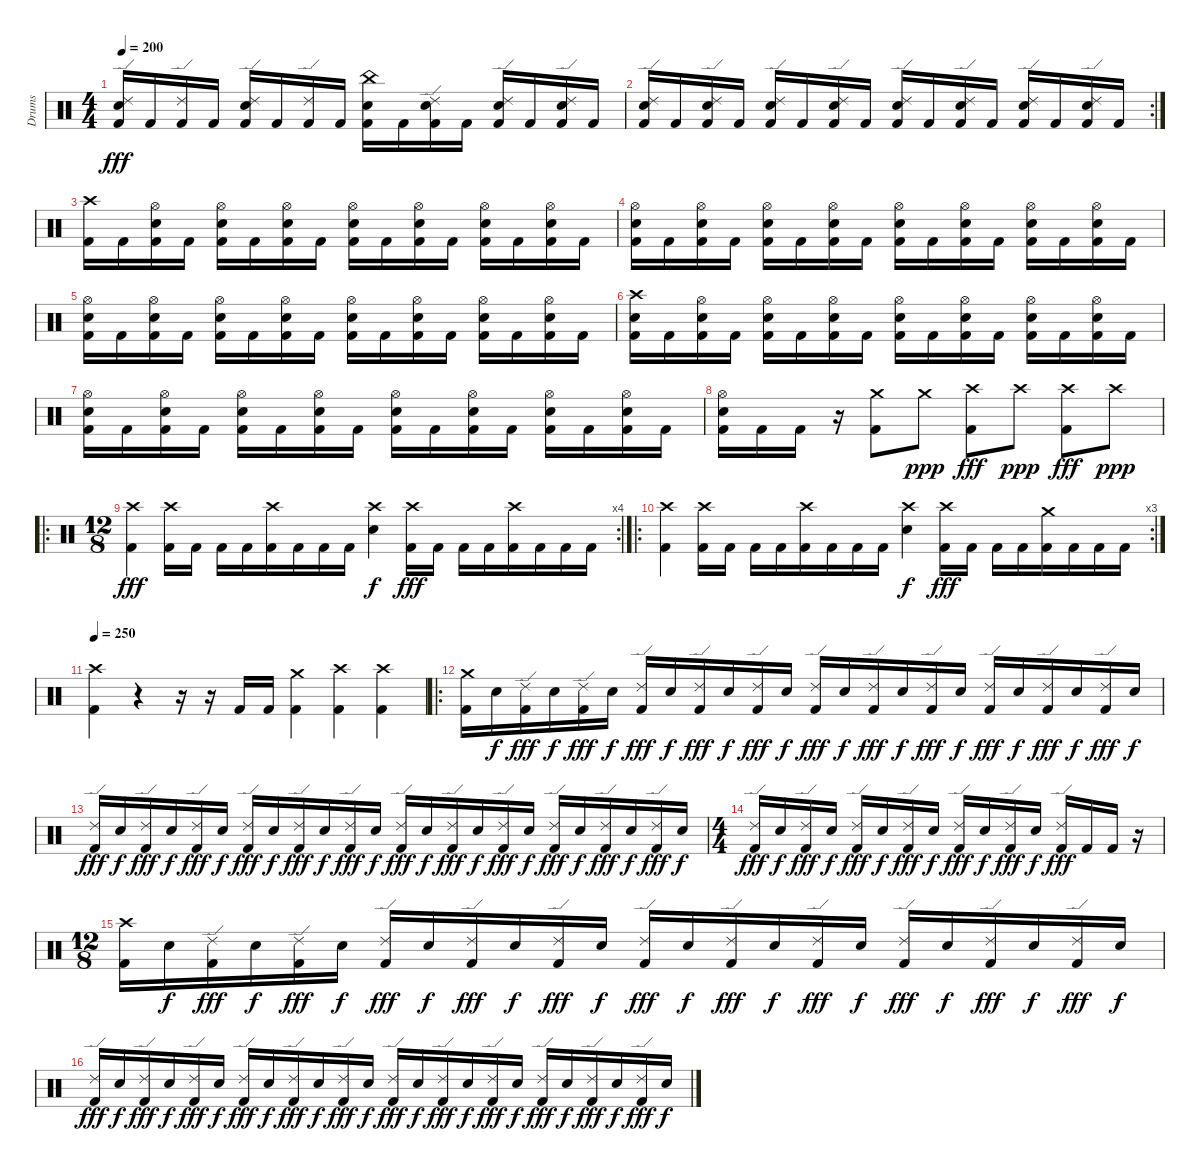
\track ("Drums" "Drums") {instrument percussion}
\staff {score}
\articulation defaults
\ts (4 4)
\tempo 200
\clef neutral
\ks c
("Ride (edge) 2" "Electric Snare (hit)" "Kick (hit) 2").16{dy fff} "Kick (hit) 2".16 ("Ride (edge) 2" "Kick (hit) 2").16 "Kick (hit) 2".16 ("Ride (edge) 2" "Electric Snare (hit)" "Kick (hit) 2").16 "Kick (hit) 2".16 ("Ride (edge) 2" "Kick (hit) 2").16 "Kick (hit) 2".16 ("China (hit)" "Electric Snare (hit)" "Kick (hit) 2").16 "Kick (hit) 2".16 ("Ride (edge) 2" "Electric Snare (hit)" "Kick (hit) 2").16 "Kick (hit) 2".16 ("Ride (edge) 2" "Electric Snare (hit)" "Kick (hit) 2").16 "Kick (hit) 2".16 ("Ride (edge) 2" "Electric Snare (hit)" "Kick (hit) 2").16 "Kick (hit) 2".16 |
\rc 2
("Ride (edge) 2" "Electric Snare (hit)" "Kick (hit) 2").16 "Kick (hit) 2".16 ("Ride (edge) 2" "Electric Snare (hit)" "Kick (hit) 2").16 "Kick (hit) 2".16 ("Ride (edge) 2" "Electric Snare (hit)" "Kick (hit) 2").16 "Kick (hit) 2".16 ("Ride (edge) 2" "Electric Snare (hit)" "Kick (hit) 2").16 "Kick (hit) 2".16 ("Ride (edge) 2" "Electric Snare (hit)" "Kick (hit) 2").16 "Kick (hit) 2".16 ("Ride (edge) 2" "Electric Snare (hit)" "Kick (hit) 2").16 "Kick (hit) 2".16 ("Ride (edge) 2" "Electric Snare (hit)" "Kick (hit) 2").16 "Kick (hit) 2".16 ("Ride (edge) 2" "Electric Snare (hit)" "Kick (hit) 2").16 "Kick (hit) 2".16 |
("Crash high (hit)" "Kick (hit) 2").16 "Kick (hit) 2".16 ("Hi-Hat (open)" "Electric Snare (hit)" "Kick (hit) 2").16 "Kick (hit) 2".16 ("Hi-Hat (open)" "Electric Snare (hit)" "Kick (hit) 2").16 "Kick (hit) 2".16 ("Hi-Hat (open)" "Electric Snare (hit)" "Kick (hit) 2").16 "Kick (hit) 2".16 ("Hi-Hat (open)" "Electric Snare (hit)" "Kick (hit) 2").16 "Kick (hit) 2".16 ("Hi-Hat (open)" "Electric Snare (hit)" "Kick (hit) 2").16 "Kick (hit) 2".16 ("Hi-Hat (open)" "Electric Snare (hit)" "Kick (hit) 2").16 "Kick (hit) 2".16 ("Hi-Hat (open)" "Electric Snare (hit)" "Kick (hit) 2").16 "Kick (hit) 2".16 |
("Hi-Hat (open)" "Electric Snare (hit)" "Kick (hit) 2").16 "Kick (hit) 2".16 ("Hi-Hat (open)" "Electric Snare (hit)" "Kick (hit) 2").16 "Kick (hit) 2".16 ("Hi-Hat (open)" "Electric Snare (hit)" "Kick (hit) 2").16 "Kick (hit) 2".16 ("Hi-Hat (open)" "Electric Snare (hit)" "Kick (hit) 2").16 "Kick (hit) 2".16 ("Hi-Hat (open)" "Electric Snare (hit)" "Kick (hit) 2").16 "Kick (hit) 2".16 ("Hi-Hat (open)" "Electric Snare (hit)" "Kick (hit) 2").16 "Kick (hit) 2".16 ("Hi-Hat (open)" "Electric Snare (hit)" "Kick (hit) 2").16 "Kick (hit) 2".16 ("Hi-Hat (open)" "Electric Snare (hit)" "Kick (hit) 2").16 "Kick (hit) 2".16 |
("Hi-Hat (open)" "Electric Snare (hit)" "Kick (hit) 2").16 "Kick (hit) 2".16 ("Hi-Hat (open)" "Electric Snare (hit)" "Kick (hit) 2").16 "Kick (hit) 2".16 ("Hi-Hat (open)" "Electric Snare (hit)" "Kick (hit) 2").16 "Kick (hit) 2".16 ("Hi-Hat (open)" "Electric Snare (hit)" "Kick (hit) 2").16 "Kick (hit) 2".16 ("Hi-Hat (open)" "Electric Snare (hit)" "Kick (hit) 2").16 "Kick (hit) 2".16 ("Hi-Hat (open)" "Electric Snare (hit)" "Kick (hit) 2").16 "Kick (hit) 2".16 ("Hi-Hat (open)" "Electric Snare (hit)" "Kick (hit) 2").16 "Kick (hit) 2".16 ("Hi-Hat (open)" "Electric Snare (hit)" "Kick (hit) 2").16 "Kick (hit) 2".16 |
("Crash high (hit)" "Electric Snare (hit)" "Kick (hit) 2").16 "Kick (hit) 2".16 ("Hi-Hat (open)" "Electric Snare (hit)" "Kick (hit) 2").16 "Kick (hit) 2".16 ("Hi-Hat (open)" "Electric Snare (hit)" "Kick (hit) 2").16 "Kick (hit) 2".16 ("Hi-Hat (open)" "Electric Snare (hit)" "Kick (hit) 2").16 "Kick (hit) 2".16 ("Hi-Hat (open)" "Electric Snare (hit)" "Kick (hit) 2").16 "Kick (hit) 2".16 ("Hi-Hat (open)" "Electric Snare (hit)" "Kick (hit) 2").16 "Kick (hit) 2".16 ("Hi-Hat (open)" "Electric Snare (hit)" "Kick (hit) 2").16 "Kick (hit) 2".16 ("Hi-Hat (open)" "Electric Snare (hit)" "Kick (hit) 2").16 "Kick (hit) 2".16 |
("Hi-Hat (open)" "Electric Snare (hit)" "Kick (hit) 2").16 "Kick (hit) 2".16 ("Hi-Hat (open)" "Electric Snare (hit)" "Kick (hit) 2").16 "Kick (hit) 2".16 ("Hi-Hat (open)" "Electric Snare (hit)" "Kick (hit) 2").16 "Kick (hit) 2".16 ("Hi-Hat (open)" "Electric Snare (hit)" "Kick (hit) 2").16 "Kick (hit) 2".16 ("Hi-Hat (open)" "Electric Snare (hit)" "Kick (hit) 2").16 "Kick (hit) 2".16 ("Hi-Hat (open)" "Electric Snare (hit)" "Kick (hit) 2").16 "Kick (hit) 2".16 ("Hi-Hat (open)" "Electric Snare (hit)" "Kick (hit) 2").16 "Kick (hit) 2".16 ("Hi-Hat (open)" "Electric Snare (hit)" "Kick (hit) 2").16 "Kick (hit) 2".16 |
("Hi-Hat (open)" "Electric Snare (hit)" "Kick (hit) 2").16 "Kick (hit) 2".16 "Kick (hit) 2".16 r.16 ("Crash medium (hit)" "Kick (hit) 2").8 "Crash medium (hit)".8{dy ppp} ("Crash high (hit)" "Kick (hit) 2").8{dy fff} "Crash high (hit)".8{dy ppp} ("Crash high (hit)" "Kick (hit) 2").8{dy fff} "Crash high (hit)".8{dy ppp} |
\ro
\rc 4
\ts (12 8)
("Crash high (hit)" "Kick (hit) 2").4{dy fff} ("Crash high (hit)" "Kick (hit) 2").16 "Kick (hit) 2".16 "Kick (hit) 2".16 "Kick (hit) 2".16 ("Crash high (hit)" "Kick (hit) 2").16 "Kick (hit) 2".16 "Kick (hit) 2".16 "Kick (hit) 2".16 ("Crash high (hit)" "Electric Snare (hit)").4{dy f} ("Crash high (hit)" "Kick (hit) 2").16{dy fff} "Kick (hit) 2".16 "Kick (hit) 2".16 "Kick (hit) 2".16 ("Crash high (hit)" "Kick (hit) 2").16 "Kick (hit) 2".16 "Kick (hit) 2".16 "Kick (hit) 2".16 |
\ro
\rc 3
("Crash high (hit)" "Kick (hit) 2").4 ("Crash high (hit)" "Kick (hit) 2").16 "Kick (hit) 2".16 "Kick (hit) 2".16 "Kick (hit) 2".16 ("Crash high (hit)" "Kick (hit) 2").16 "Kick (hit) 2".16 "Kick (hit) 2".16 "Kick (hit) 2".16 ("Crash high (hit)" "Electric Snare (hit)").4{dy f} ("Crash high (hit)" "Kick (hit) 2").16{dy fff} "Kick (hit) 2".16 "Kick (hit) 2".16 "Kick (hit) 2".16 ("Crash medium (hit)" "Kick (hit) 2").16 "Kick (hit) 2".16 "Kick (hit) 2".16 "Kick (hit) 2".16 |
\tempo 250
("Crash high (hit)" "Kick (hit) 2").4 r.4 r.16 r.16 "Kick (hit) 2".16 "Kick (hit) 2".16 ("Crash medium (hit)" "Kick (hit) 2").4 ("Crash high (hit)" "Kick (hit) 2").4 ("Crash high (hit)" "Kick (hit) 2").4 |
\ro
("Crash medium (hit)" "Kick (hit) 2").16 "Electric Snare (hit)".16{dy f} ("Ride (edge) 2" "Kick (hit) 2").16{dy fff} "Electric Snare (hit)".16{dy f} ("Ride (edge) 2" "Kick (hit) 2").16{dy fff} "Electric Snare (hit)".16{dy f} ("Ride (edge) 2" "Kick (hit) 2").16{dy fff} "Electric Snare (hit)".16{dy f} ("Ride (edge) 2" "Kick (hit) 2").16{dy fff} "Electric Snare (hit)".16{dy f} ("Ride (edge) 2" "Kick (hit) 2").16{dy fff} "Electric Snare (hit)".16{dy f} ("Ride (edge) 2" "Kick (hit) 2").16{dy fff} "Electric Snare (hit)".16{dy f} ("Ride (edge) 2" "Kick (hit) 2").16{dy fff} "Electric Snare (hit)".16{dy f} ("Ride (edge) 2" "Kick (hit) 2").16{dy fff} "Electric Snare (hit)".16{dy f} ("Ride (edge) 2" "Kick (hit) 2").16{dy fff} "Electric Snare (hit)".16{dy f} ("Ride (edge) 2" "Kick (hit) 2").16{dy fff} "Electric Snare (hit)".16{dy f} ("Ride (edge) 2" "Kick (hit) 2").16{dy fff} "Electric Snare (hit)".16{dy f} |
("Ride (edge) 2" "Kick (hit) 2").16{dy fff} "Electric Snare (hit)".16{dy f} ("Ride (edge) 2" "Kick (hit) 2").16{dy fff} "Electric Snare (hit)".16{dy f} ("Ride (edge) 2" "Kick (hit) 2").16{dy fff} "Electric Snare (hit)".16{dy f} ("Ride (edge) 2" "Kick (hit) 2").16{dy fff} "Electric Snare (hit)".16{dy f} ("Ride (edge) 2" "Kick (hit) 2").16{dy fff} "Electric Snare (hit)".16{dy f} ("Ride (edge) 2" "Kick (hit) 2").16{dy fff} "Electric Snare (hit)".16{dy f} ("Ride (edge) 2" "Kick (hit) 2").16{dy fff} "Electric Snare (hit)".16{dy f} ("Ride (edge) 2" "Kick (hit) 2").16{dy fff} "Electric Snare (hit)".16{dy f} ("Ride (edge) 2" "Kick (hit) 2").16{dy fff} "Electric Snare (hit)".16{dy f} ("Ride (edge) 2" "Kick (hit) 2").16{dy fff} "Electric Snare (hit)".16{dy f} ("Ride (edge) 2" "Kick (hit) 2").16{dy fff} "Electric Snare (hit)".16{dy f} ("Ride (edge) 2" "Kick (hit) 2").16{dy fff} "Electric Snare (hit)".16{dy f} |
\ts (4 4)
("Ride (edge) 2" "Kick (hit) 2").16{dy fff} "Electric Snare (hit)".16{dy f} ("Ride (edge) 2" "Kick (hit) 2").16{dy fff} "Electric Snare (hit)".16{dy f} ("Ride (edge) 2" "Kick (hit) 2").16{dy fff} "Electric Snare (hit)".16{dy f} ("Ride (edge) 2" "Kick (hit) 2").16{dy fff} "Electric Snare (hit)".16{dy f} ("Ride (edge) 2" "Kick (hit) 2").16{dy fff} "Electric Snare (hit)".16{dy f} ("Ride (edge) 2" "Kick (hit) 2").16{dy fff} "Electric Snare (hit)".16{dy f} ("Ride (edge) 2" "Kick (hit) 2").16{dy fff} "Kick (hit) 2".16 "Kick (hit) 2".16 r.16 |
\ts (12 8)
("Crash high (hit)" "Kick (hit) 2").16 "Electric Snare (hit)".16{dy f} ("Ride (edge) 2" "Kick (hit) 2").16{dy fff} "Electric Snare (hit)".16{dy f} ("Ride (edge) 2" "Kick (hit) 2").16{dy fff} "Electric Snare (hit)".16{dy f} ("Ride (edge) 2" "Kick (hit) 2").16{dy fff} "Electric Snare (hit)".16{dy f} ("Ride (edge) 2" "Kick (hit) 2").16{dy fff} "Electric Snare (hit)".16{dy f} ("Ride (edge) 2" "Kick (hit) 2").16{dy fff} "Electric Snare (hit)".16{dy f} ("Ride (edge) 2" "Kick (hit) 2").16{dy fff} "Electric Snare (hit)".16{dy f} ("Ride (edge) 2" "Kick (hit) 2").16{dy fff} "Electric Snare (hit)".16{dy f} ("Ride (edge) 2" "Kick (hit) 2").16{dy fff} "Electric Snare (hit)".16{dy f} ("Ride (edge) 2" "Kick (hit) 2").16{dy fff} "Electric Snare (hit)".16{dy f} ("Ride (edge) 2" "Kick (hit) 2").16{dy fff} "Electric Snare (hit)".16{dy f} ("Ride (edge) 2" "Kick (hit) 2").16{dy fff} "Electric Snare (hit)".16{dy f} |
("Ride (edge) 2" "Kick (hit) 2").16{dy fff} "Electric Snare (hit)".16{dy f} ("Ride (edge) 2" "Kick (hit) 2").16{dy fff} "Electric Snare (hit)".16{dy f} ("Ride (edge) 2" "Kick (hit) 2").16{dy fff} "Electric Snare (hit)".16{dy f} ("Ride (edge) 2" "Kick (hit) 2").16{dy fff} "Electric Snare (hit)".16{dy f} ("Ride (edge) 2" "Kick (hit) 2").16{dy fff} "Electric Snare (hit)".16{dy f} ("Ride (edge) 2" "Kick (hit) 2").16{dy fff} "Electric Snare (hit)".16{dy f} ("Ride (edge) 2" "Kick (hit) 2").16{dy fff} "Electric Snare (hit)".16{dy f} ("Ride (edge) 2" "Kick (hit) 2").16{dy fff} "Electric Snare (hit)".16{dy f} ("Ride (edge) 2" "Kick (hit) 2").16{dy fff} "Electric Snare (hit)".16{dy f} ("Ride (edge) 2" "Kick (hit) 2").16{dy fff} "Electric Snare (hit)".16{dy f} ("Ride (edge) 2" "Kick (hit) 2").16{dy fff} "Electric Snare (hit)".16{dy f} ("Ride (edge) 2" "Kick (hit) 2").16{dy fff} "Electric Snare (hit)".16{dy f}
